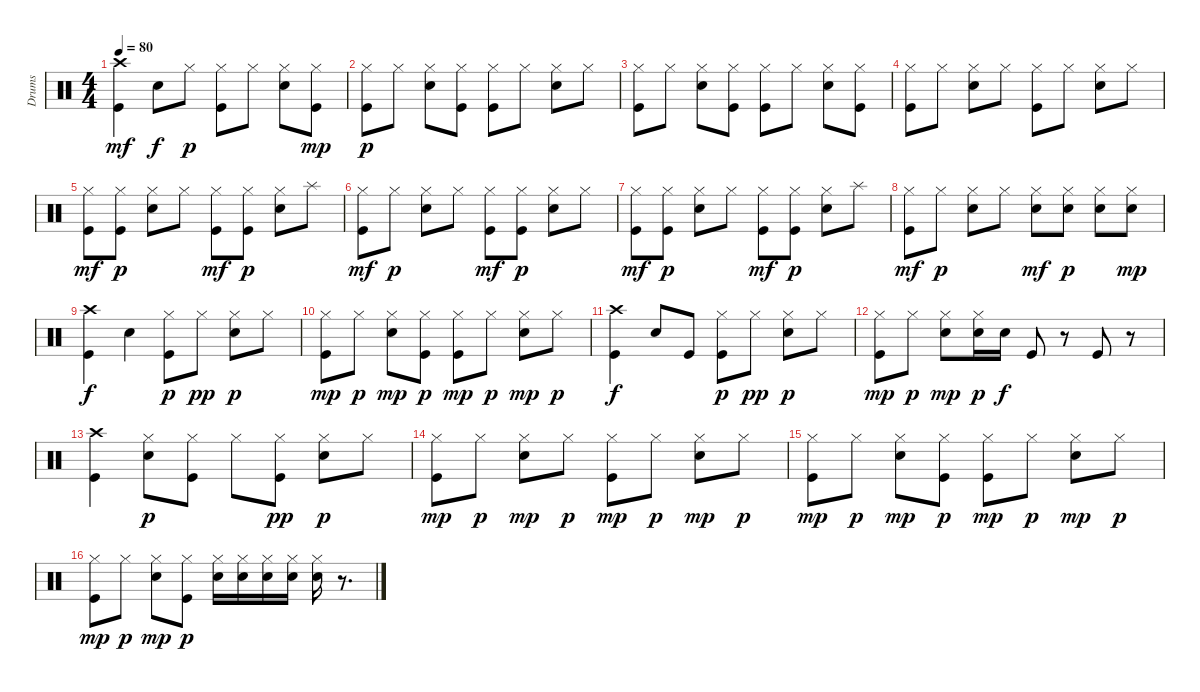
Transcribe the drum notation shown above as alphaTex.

\track ("Drums" "Drums") {instrument percussion}
\staff {score}
\articulation defaults
\ts (4 4)
\tempo 80
\clef neutral
\ks c
("Crash high (hit)" "Kick (hit)").4{dy mf} "Snare (hit) 2".8{dy f} "Hi-Hat (closed)".8{dy p} ("Hi-Hat (closed)" "Kick (hit)").8 "Hi-Hat (closed)".8 ("Hi-Hat (closed)" "Snare (hit) 2").8 ("Hi-Hat (closed)" "Kick (hit)").8{dy mp} |
("Hi-Hat (closed)" "Kick (hit)").8{dy p} "Hi-Hat (closed)".8 ("Hi-Hat (closed)" "Snare (hit) 2").8 ("Hi-Hat (closed)" "Kick (hit)").8 ("Hi-Hat (closed)" "Kick (hit)").8 "Hi-Hat (closed)".8 ("Hi-Hat (closed)" "Snare (hit) 2").8 "Hi-Hat (closed)".8 |
("Hi-Hat (closed)" "Kick (hit)").8 "Hi-Hat (closed)".8 ("Hi-Hat (closed)" "Snare (hit) 2").8 ("Hi-Hat (closed)" "Kick (hit)").8 ("Hi-Hat (closed)" "Kick (hit)").8 "Hi-Hat (closed)".8 ("Hi-Hat (closed)" "Snare (hit) 2").8 ("Kick (hit)" "Hi-Hat (closed)").8 |
("Hi-Hat (closed)" "Kick (hit)").8 "Hi-Hat (closed)".8 ("Hi-Hat (closed)" "Snare (hit) 2").8 "Hi-Hat (closed)".8 ("Hi-Hat (closed)" "Kick (hit)").8 "Hi-Hat (closed)".8 ("Hi-Hat (closed)" "Snare (hit) 2").8 "Hi-Hat (closed)".8 |
("Hi-Hat (closed)" "Kick (hit)").8{dy mf} ("Kick (hit)" "Hi-Hat (closed)").8{dy p} ("Hi-Hat (closed)" "Snare (hit) 2").8 "Hi-Hat (closed)".8 ("Hi-Hat (closed)" "Kick (hit)").8{dy mf} ("Kick (hit)" "Hi-Hat (closed)").8{dy p} ("Hi-Hat (closed)" "Snare (hit) 2").8 "Splash (hit)".8 |
("Hi-Hat (closed)" "Kick (hit)").8{dy mf} "Hi-Hat (closed)".8{dy p} ("Hi-Hat (closed)" "Snare (hit) 2").8 "Hi-Hat (closed)".8 ("Hi-Hat (closed)" "Kick (hit)").8{dy mf} ("Kick (hit)" "Hi-Hat (closed)").8{dy p} ("Hi-Hat (closed)" "Snare (hit) 2").8 "Hi-Hat (closed)".8 |
("Hi-Hat (closed)" "Kick (hit)").8{dy mf} ("Kick (hit)" "Hi-Hat (closed)").8{dy p} ("Hi-Hat (closed)" "Snare (hit) 2").8 "Hi-Hat (closed)".8 ("Hi-Hat (closed)" "Kick (hit)").8{dy mf} ("Kick (hit)" "Hi-Hat (closed)").8{dy p} ("Hi-Hat (closed)" "Snare (hit) 2").8 "Splash (hit)".8 |
("Hi-Hat (closed)" "Kick (hit)").8{dy mf} "Hi-Hat (closed)".8{dy p} ("Hi-Hat (closed)" "Snare (hit) 2").8 "Hi-Hat (closed)".8 ("Hi-Hat (closed)" "Snare (hit) 2").8{dy mf} ("Snare (hit) 2" "Hi-Hat (closed)").8{dy p} ("Hi-Hat (closed)" "Snare (hit) 2").8 ("Hi-Hat (closed)" "Snare (hit) 2").8{dy mp} |
("Crash high (hit)" "Kick (hit)").4{dy f} "Snare (hit) 2".4 ("Kick (hit)" "Hi-Hat (closed)").8{dy p} "Hi-Hat (closed)".8{dy pp} ("Hi-Hat (closed)" "Snare (hit) 2").8{dy p} "Hi-Hat (closed)".8 |
("Kick (hit)" "Hi-Hat (closed)").8{dy mp} "Hi-Hat (closed)".8{dy p} ("Hi-Hat (closed)" "Snare (hit) 2").8{dy mp} ("Kick (hit)" "Hi-Hat (closed)").8{dy p} ("Hi-Hat (closed)" "Kick (hit)").8{dy mp} "Hi-Hat (closed)".8{dy p} ("Snare (hit) 2" "Hi-Hat (closed)").8{dy mp} "Hi-Hat (closed)".8{dy p} |
("Kick (hit)" "Crash high (hit)").4{dy f} "Snare (hit) 2".8 "Kick (hit)".8 ("Kick (hit)" "Hi-Hat (closed)").8{dy p} "Hi-Hat (closed)".8{dy pp} ("Hi-Hat (closed)" "Snare (hit) 2").8{dy p} "Hi-Hat (closed)".8 |
("Kick (hit)" "Hi-Hat (closed)").8{dy mp} "Hi-Hat (closed)".8{dy p} ("Snare (hit) 2" "Hi-Hat (closed)").8{dy mp} ("Snare (hit) 2" "Hi-Hat (closed)").16{dy p} "Snare (hit) 2".16{dy f} "Kick (hit)".8 r.8 "Kick (hit)".8 r.8 |
("Kick (hit)" "Crash high (hit)").4 ("Snare (hit) 2" "Hi-Hat (closed)").8{dy p} ("Kick (hit)" "Hi-Hat (closed)").8 "Hi-Hat (closed)".8 ("Kick (hit)" "Hi-Hat (closed)").8{dy pp} ("Snare (hit) 2" "Hi-Hat (closed)").8{dy p} "Hi-Hat (closed)".8 |
("Kick (hit)" "Hi-Hat (closed)").8{dy mp} "Hi-Hat (closed)".8{dy p} ("Snare (hit) 2" "Hi-Hat (closed)").8{dy mp} "Hi-Hat (closed)".8{dy p} ("Kick (hit)" "Hi-Hat (closed)").8{dy mp} "Hi-Hat (closed)".8{dy p} ("Snare (hit) 2" "Hi-Hat (closed)").8{dy mp} "Hi-Hat (closed)".8{dy p} |
("Kick (hit)" "Hi-Hat (closed)").8{dy mp} "Hi-Hat (closed)".8{dy p} ("Snare (hit) 2" "Hi-Hat (closed)").8{dy mp} ("Kick (hit)" "Hi-Hat (closed)").8{dy p} ("Kick (hit)" "Hi-Hat (closed)").8{dy mp} "Hi-Hat (closed)".8{dy p} ("Snare (hit) 2" "Hi-Hat (closed)").8{dy mp} "Hi-Hat (closed)".8{dy p} |
("Kick (hit)" "Hi-Hat (closed)").8{dy mp} "Hi-Hat (closed)".8{dy p} ("Snare (hit) 2" "Hi-Hat (closed)").8{dy mp} ("Kick (hit)" "Hi-Hat (closed)").8{dy p} ("Hi-Hat (closed)" "Snare (hit) 2").16 ("Hi-Hat (closed)" "Snare (hit) 2").16 ("Hi-Hat (closed)" "Snare (hit) 2").16 ("Hi-Hat (closed)" "Snare (hit) 2").16 ("Hi-Hat (closed)" "Snare (hit) 2").16 r.8{d}
